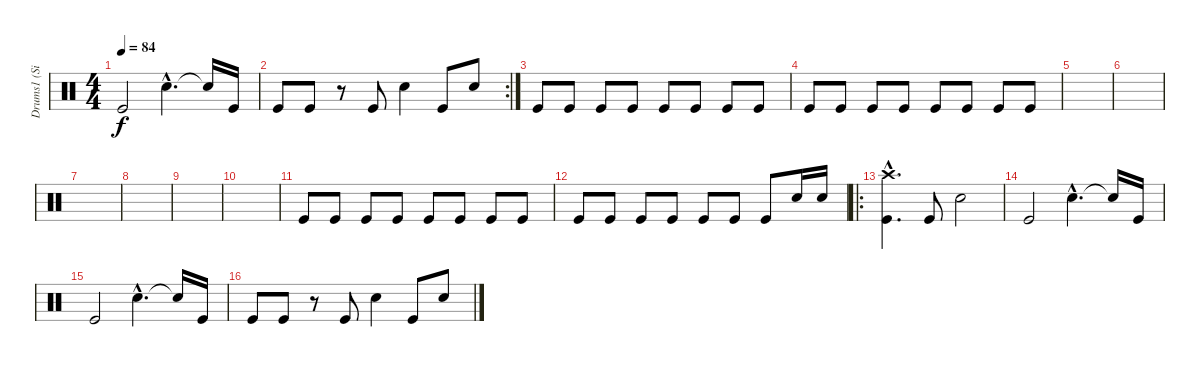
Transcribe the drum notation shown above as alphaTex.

\track ("Drums1 (Silas)" "Drums1 (Si") {instrument percussion}
\staff {score}
\articulation defaults
\ts (4 4)
\tempo 84
\clef neutral
\ks c "Kick (hit)".2{dy f} "Snare (hit) 2"{hac}.4{d} "Snare (hit) 2"{t}.16 "Kick (hit)".16
|
\rc 2 "Kick (hit)".8 "Kick (hit)".8
r.8 "Kick (hit)".8 "Snare (hit) 2".4 "Kick (hit)".8 "Snare (hit) 2".8 |
"Kick (hit)".8 "Kick (hit)".8 "Kick (hit)".8 "Kick (hit)".8 "Kick (hit)".8 "Kick (hit)".8 "Kick (hit)".8 "Kick (hit)".8 |
"Kick (hit)".8 "Kick (hit)".8 "Kick (hit)".8 "Kick (hit)".8 "Kick (hit)".8 "Kick (hit)".8 "Kick (hit)".8 "Kick (hit)".8 |
|
|
|
|
|
|
"Kick (hit)".8 "Kick (hit)".8 "Kick (hit)".8 "Kick (hit)".8 "Kick (hit)".8 "Kick (hit)".8 "Kick (hit)".8 "Kick (hit)".8 |
"Kick (hit)".8 "Kick (hit)".8 "Kick (hit)".8 "Kick (hit)".8 "Kick (hit)".8 "Kick (hit)".8 "Kick (hit)".8 "Snare (hit) 2".16 "Snare (hit) 2".16 |
\ro
("Kick (hit)"{hac} "Crash high (hit)"{hac}).4{d} "Kick (hit)".8 "Snare (hit) 2".2 |
"Kick (hit)".2 "Snare (hit) 2"{hac}.4{d} "Snare (hit) 2"{t}.16 "Kick (hit)".16 |
"Kick (hit)".2 "Snare (hit) 2"{hac}.4{d} "Snare (hit) 2"{t}.16 "Kick (hit)".16 |
"Kick (hit)".8 "Kick (hit)".8 r.8 "Kick (hit)".8 "Snare (hit) 2".4 "Kick (hit)".8 "Snare (hit) 2".8
